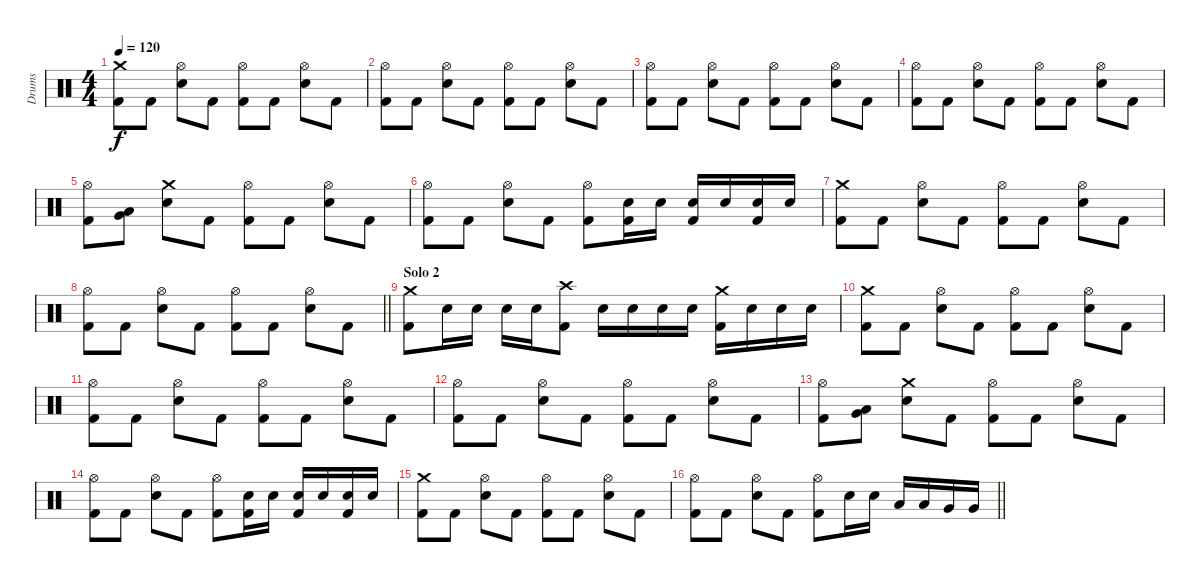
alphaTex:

\track ("Drums" "Drums") {instrument percussion}
\staff {score}
\articulation defaults
\ts (4 4)
\tempo 120
\clef neutral
\ks c
("Crash medium (hit)" "Kick (hit) 2").8{dy f} "Kick (hit) 2".8 ("Hi-Hat (open)" "Electric Snare (hit)").8 "Kick (hit) 2".8 ("Hi-Hat (open)" "Kick (hit) 2").8 "Kick (hit) 2".8 ("Hi-Hat (open)" "Electric Snare (hit)").8 "Kick (hit) 2".8 |
("Hi-Hat (open)" "Kick (hit) 2").8 "Kick (hit) 2".8 ("Hi-Hat (open)" "Electric Snare (hit)").8 "Kick (hit) 2".8 ("Hi-Hat (open)" "Kick (hit) 2").8 "Kick (hit) 2".8 ("Hi-Hat (open)" "Electric Snare (hit)").8 "Kick (hit) 2".8 |
("Hi-Hat (open)" "Kick (hit) 2").8 "Kick (hit) 2".8 ("Hi-Hat (open)" "Electric Snare (hit)").8 "Kick (hit) 2".8 ("Hi-Hat (open)" "Kick (hit) 2").8 "Kick (hit) 2".8 ("Hi-Hat (open)" "Electric Snare (hit)").8 "Kick (hit) 2".8 |
("Hi-Hat (open)" "Kick (hit) 2").8 "Kick (hit) 2".8 ("Hi-Hat (open)" "Electric Snare (hit)").8 "Kick (hit) 2".8 ("Hi-Hat (open)" "Kick (hit) 2").8 "Kick (hit) 2".8 ("Hi-Hat (open)" "Electric Snare (hit)").8 "Kick (hit) 2".8 |
("Hi-Hat (open)" "Kick (hit) 2").8 ("Low Tom (hit)" "Very Low Tom (hit)").8 ("Crash medium (hit)" "Electric Snare (hit)").8 "Kick (hit) 2".8 ("Hi-Hat (open)" "Kick (hit) 2").8 "Kick (hit) 2".8 ("Hi-Hat (open)" "Electric Snare (hit)").8 "Kick (hit) 2".8 |
("Hi-Hat (open)" "Kick (hit) 2").8 "Kick (hit) 2".8 ("Hi-Hat (open)" "Electric Snare (hit)").8 "Kick (hit) 2".8 ("Hi-Hat (open)" "Kick (hit) 2").8 ("Electric Snare (hit)" "Kick (hit) 2").16 "Electric Snare (hit)".16 ("Electric Snare (hit)" "Kick (hit) 2").16 "Electric Snare (hit)".16 ("Electric Snare (hit)" "Kick (hit) 2").16 "Electric Snare (hit)".16 |
("Crash medium (hit)" "Kick (hit) 2").8 "Kick (hit) 2".8 ("Hi-Hat (open)" "Electric Snare (hit)").8 "Kick (hit) 2".8 ("Hi-Hat (open)" "Kick (hit) 2").8 "Kick (hit) 2".8 ("Hi-Hat (open)" "Electric Snare (hit)").8 "Kick (hit) 2".8 |
\barLineRight lightlight
("Hi-Hat (open)" "Kick (hit) 2").8 "Kick (hit) 2".8 ("Hi-Hat (open)" "Electric Snare (hit)").8 "Kick (hit) 2".8 ("Hi-Hat (open)" "Kick (hit) 2").8 "Kick (hit) 2".8 ("Hi-Hat (open)" "Electric Snare (hit)").8 "Kick (hit) 2".8 |
\section ("" "Solo 2")
("Crash medium (hit)" "Kick (hit) 2").8 "Electric Snare (hit)".16 "Electric Snare (hit)".16 "Electric Snare (hit)".16 "Electric Snare (hit)".16 ("Crash high (hit)" "Kick (hit) 2").8 "Electric Snare (hit)".16 "Electric Snare (hit)".16 "Electric Snare (hit)".16 "Electric Snare (hit)".16 ("Crash medium (hit)" "Kick (hit) 2").16 "Electric Snare (hit)".16 "Electric Snare (hit)".16 "Electric Snare (hit)".16 |
("Crash medium (hit)" "Kick (hit) 2").8 "Kick (hit) 2".8 ("Hi-Hat (open)" "Electric Snare (hit)").8 "Kick (hit) 2".8 ("Hi-Hat (open)" "Kick (hit) 2").8 "Kick (hit) 2".8 ("Hi-Hat (open)" "Electric Snare (hit)").8 "Kick (hit) 2".8 |
("Hi-Hat (open)" "Kick (hit) 2").8 "Kick (hit) 2".8 ("Hi-Hat (open)" "Electric Snare (hit)").8 "Kick (hit) 2".8 ("Hi-Hat (open)" "Kick (hit) 2").8 "Kick (hit) 2".8 ("Hi-Hat (open)" "Electric Snare (hit)").8 "Kick (hit) 2".8 |
("Hi-Hat (open)" "Kick (hit) 2").8 "Kick (hit) 2".8 ("Hi-Hat (open)" "Electric Snare (hit)").8 "Kick (hit) 2".8 ("Hi-Hat (open)" "Kick (hit) 2").8 "Kick (hit) 2".8 ("Hi-Hat (open)" "Electric Snare (hit)").8 "Kick (hit) 2".8 |
("Hi-Hat (open)" "Kick (hit) 2").8 ("Low Tom (hit)" "Very Low Tom (hit)").8 ("Crash medium (hit)" "Electric Snare (hit)").8 "Kick (hit) 2".8 ("Hi-Hat (open)" "Kick (hit) 2").8 "Kick (hit) 2".8 ("Hi-Hat (open)" "Electric Snare (hit)").8 "Kick (hit) 2".8 |
("Hi-Hat (open)" "Kick (hit) 2").8 "Kick (hit) 2".8 ("Hi-Hat (open)" "Electric Snare (hit)").8 "Kick (hit) 2".8 ("Hi-Hat (open)" "Kick (hit) 2").8 ("Electric Snare (hit)" "Kick (hit) 2").16 "Electric Snare (hit)".16 ("Electric Snare (hit)" "Kick (hit) 2").16 "Electric Snare (hit)".16 ("Electric Snare (hit)" "Kick (hit) 2").16 "Electric Snare (hit)".16 |
("Crash medium (hit)" "Kick (hit) 2").8 "Kick (hit) 2".8 ("Hi-Hat (open)" "Electric Snare (hit)").8 "Kick (hit) 2".8 ("Hi-Hat (open)" "Kick (hit) 2").8 "Kick (hit) 2".8 ("Hi-Hat (open)" "Electric Snare (hit)").8 "Kick (hit) 2".8 |
\barLineRight lightlight
("Hi-Hat (open)" "Kick (hit) 2").8 "Kick (hit) 2".8 ("Hi-Hat (open)" "Electric Snare (hit)").8 "Kick (hit) 2".8 ("Hi-Hat (open)" "Kick (hit) 2").8 "Electric Snare (hit)".16 "Electric Snare (hit)".16 "Low Tom (hit)".16 "Low Tom (hit)".16 "Very Low Tom (hit)".16 "Very Low Tom (hit)".16
